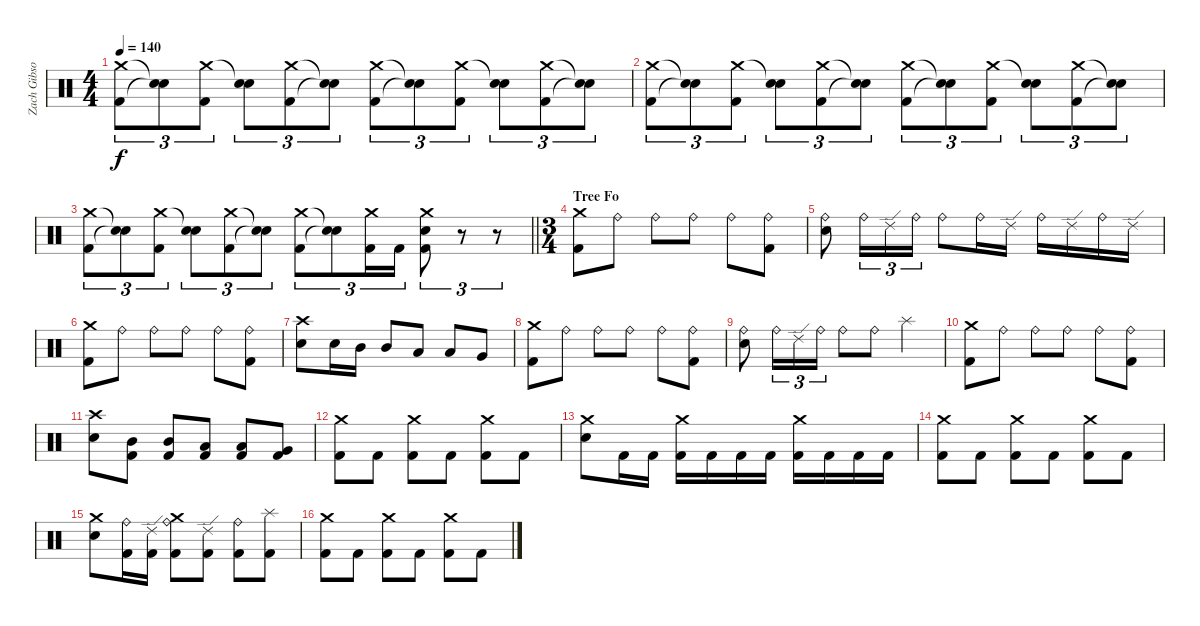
\track ("Zach Gibson" "Zach Gibso") {instrument percussion}
\staff {score}
\articulation defaults
\ts (4 4)
\tempo 140
\clef neutral
\ks c
("Crash medium (hit)" "Kick (hit) 2").8{tu (3 2) dy f} ("Snare (hit)"{t} "Snare (hit)"{t}).8{tu (3 2)} ("Crash medium (hit)" "Kick (hit) 2").8{tu (3 2)} ("Snare (hit)"{t} "Snare (hit) 2").8{tu (3 2)} ("Crash medium (hit)" "Kick (hit) 2").8{tu (3 2)} ("Snare (hit)"{t} "Snare (hit)"{t}).8{tu (3 2)} ("Crash medium (hit)" "Kick (hit) 2").8{tu (3 2)} ("Snare (hit)"{t} "Snare (hit)"{t}).8{tu (3 2)} ("Crash medium (hit)" "Kick (hit) 2").8{tu (3 2)} ("Snare (hit)"{t} "Snare (hit) 2").8{tu (3 2)} ("Crash medium (hit)" "Kick (hit) 2").8{tu (3 2)} ("Snare (hit)"{t} "Snare (hit)"{t}).8{tu (3 2)} |
("Crash medium (hit)" "Kick (hit) 2").8{tu (3 2)} ("Snare (hit)"{t} "Snare (hit)"{t}).8{tu (3 2)} ("Crash medium (hit)" "Kick (hit) 2").8{tu (3 2)} ("Snare (hit)"{t} "Snare (hit) 2").8{tu (3 2)} ("Crash medium (hit)" "Kick (hit) 2").8{tu (3 2)} ("Snare (hit)"{t} "Snare (hit)"{t}).8{tu (3 2)} ("Crash medium (hit)" "Kick (hit) 2").8{tu (3 2)} ("Snare (hit)"{t} "Snare (hit)"{t}).8{tu (3 2)} ("Crash medium (hit)" "Kick (hit) 2").8{tu (3 2)} ("Snare (hit)"{t} "Snare (hit) 2").8{tu (3 2)} ("Crash medium (hit)" "Kick (hit) 2").8{tu (3 2)} ("Snare (hit)"{t} "Snare (hit)"{t}).8{tu (3 2)} |
\barLineRight lightlight
("Crash medium (hit)" "Kick (hit) 2").8{tu (3 2)} ("Snare (hit)"{t} "Snare (hit)"{t}).8{tu (3 2)} ("Crash medium (hit)" "Kick (hit) 2").8{tu (3 2)} ("Snare (hit)"{t} "Snare (hit) 2").8{tu (3 2)} ("Crash medium (hit)" "Kick (hit) 2").8{tu (3 2)} ("Snare (hit)"{t} "Snare (hit)"{t}).8{tu (3 2)} ("Crash medium (hit)" "Kick (hit) 2").8{tu (3 2)} ("Snare (hit)"{t} "Snare (hit)"{t}).8{tu (3 2)} ("Crash medium (hit)" "Kick (hit) 2").16{tu (3 2)} "Kick (hit) 2".16{tu (3 2)} ("Crash medium (hit)" "Snare (hit) 2" "Kick (hit) 2").8{tu (3 2)} r.8{tu (3 2)} r.8{tu (3 2)} |
\ts (3 4)
\section ("" "Tree Fo")
("Crash medium (hit)" "Kick (hit) 2").8 "Ride (bell)".8 "Ride (bell)".8 "Ride (bell)".8 "Ride (bell)".8 ("Ride (bell)" "Kick (hit) 2").8 |
("Ride (bell)" "Snare (hit) 2").8 "Ride (bell)".16{tu (3 2)} "Ride (edge) 2".16{tu (3 2)} "Ride (bell)".16{tu (3 2)} "Ride (bell)".8 "Ride (bell)".16 "Ride (edge) 2".16 "Ride (bell)".16 "Ride (edge) 2".16 "Ride (bell)".16 "Ride (edge) 2".16 |
("Crash medium (hit)" "Kick (hit) 2").8 "Ride (bell)".8 "Ride (bell)".8 "Ride (bell)".8 "Ride (bell)".8 ("Ride (bell)" "Kick (hit) 2").8 |
("Crash high (hit)" "Snare (hit) 2").8 "Snare (hit) 2".16 "Mid Tom (hit)".16 "Mid Tom (hit)".8 "Low Tom (hit)".8 "Low Tom (hit)".8 "Very Low Tom (hit)".8 |
("Crash medium (hit)" "Kick (hit) 2").8 "Ride (bell)".8 "Ride (bell)".8 "Ride (bell)".8 "Ride (bell)".8 ("Ride (bell)" "Kick (hit) 2").8 |
("Ride (bell)" "Snare (hit) 2").8 "Ride (bell)".16{tu (3 2)} "Ride (edge) 2".16{tu (3 2)} "Ride (bell)".16{tu (3 2)} "Ride (bell)".8 "Ride (bell)".8 "Splash (hit)".4 |
("Crash medium (hit)" "Kick (hit) 2").8 "Ride (bell)".8 "Ride (bell)".8 "Ride (bell)".8 "Ride (bell)".8 ("Ride (bell)" "Kick (hit) 2").8 |
("Crash high (hit)" "Snare (hit) 2").8 ("Mid Tom (hit)" "Kick (hit) 2").8 ("Mid Tom (hit)" "Kick (hit) 2").8 ("Low Tom (hit)" "Kick (hit) 2").8 ("Low Tom (hit)" "Kick (hit) 2").8 ("Very Low Tom (hit)" "Kick (hit) 2").8 |
("Crash medium (hit)" "Kick (hit) 2").8 "Kick (hit) 2".8 ("Crash medium (hit)" "Kick (hit) 2").8 "Kick (hit) 2".8 ("Crash medium (hit)" "Kick (hit) 2").8 "Kick (hit) 2".8 |
("Crash medium (hit)" "Snare (hit) 2").8 "Kick (hit) 2".16 "Kick (hit) 2".16 ("Crash medium (hit)" "Kick (hit) 2").16 "Kick (hit) 2".16 "Kick (hit) 2".16 "Kick (hit) 2".16 ("Crash medium (hit)" "Kick (hit) 2").16 "Kick (hit) 2".16 "Kick (hit) 2".16 "Kick (hit) 2".16 |
("Crash medium (hit)" "Kick (hit) 2").8 "Kick (hit) 2".8 ("Crash medium (hit)" "Kick (hit) 2").8 "Kick (hit) 2".8 ("Crash medium (hit)" "Kick (hit) 2").8 "Kick (hit) 2".8 |
("Crash medium (hit)" "Snare (hit) 2").8 ("Ride (bell)" "Kick (hit) 2").16 ("Ride (edge) 2" "Kick (hit) 2").16 ("Crash medium (hit)" "Ride (bell)" "Kick (hit) 2").8 ("Ride (edge) 2" "Kick (hit) 2").8 ("Ride (bell)" "Kick (hit) 2").8 ("Splash (hit)" "Kick (hit) 2").8 |
("Crash medium (hit)" "Kick (hit) 2").8 "Kick (hit) 2".8 ("Crash medium (hit)" "Kick (hit) 2").8 "Kick (hit) 2".8 ("Crash medium (hit)" "Kick (hit) 2").8 "Kick (hit) 2".8
